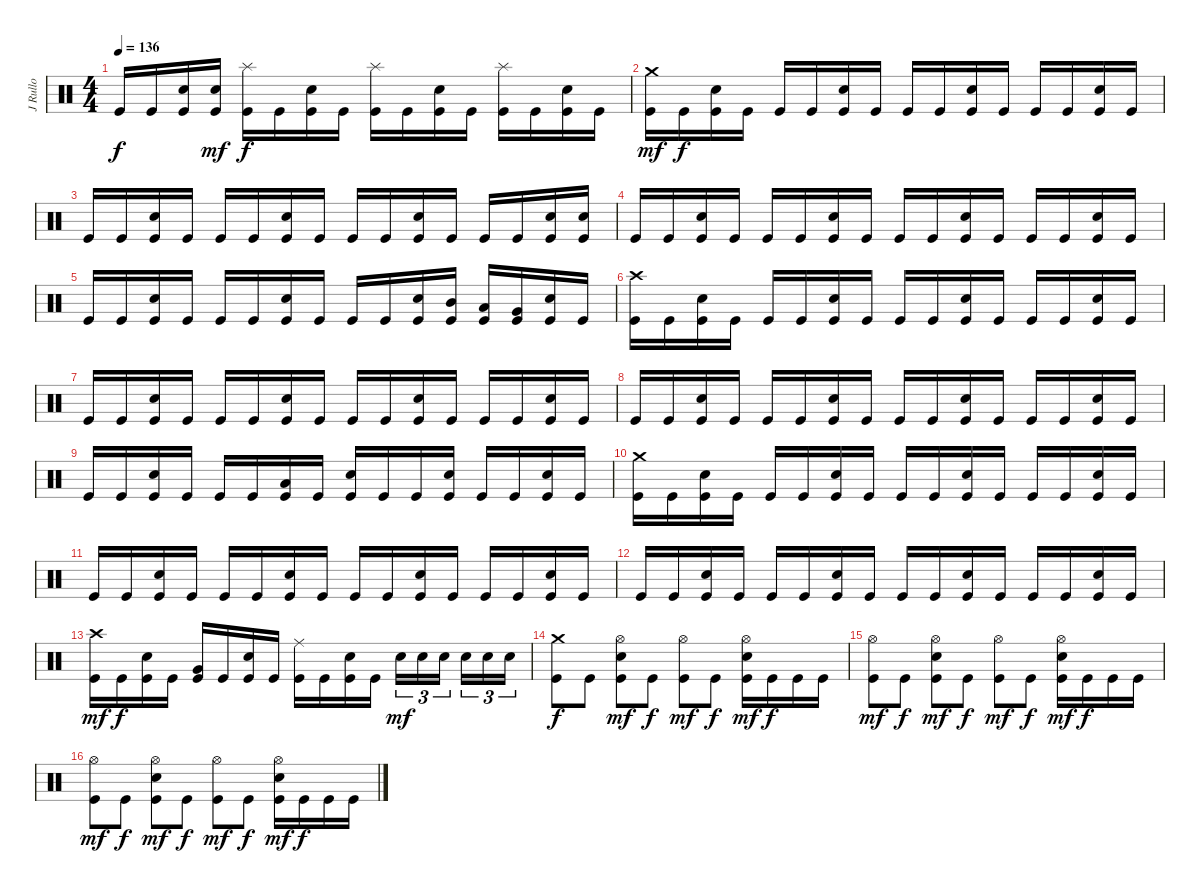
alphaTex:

\track ("J Rullo" "J Rullo") {instrument percussion}
\staff {score}
\articulation defaults
\ts (4 4)
\tempo 136
\clef neutral
\ks c "Kick (hit)".16{dy f} "Kick (hit)".16
("Electric Snare (hit)" "Kick (hit)").16 ("Electric Snare (hit)" "Kick (hit)").16{dy mf} ("Splash (hit)" "Kick (hit)").16{dy f} "Kick (hit)".16 ("Electric Snare (hit)" "Kick (hit)").16 "Kick (hit)".16 ("Splash (hit)" "Kick (hit)").16 "Kick (hit)".16 ("Electric Snare (hit)" "Kick (hit)").16 "Kick (hit)".16 ("Splash (hit)" "Kick (hit)").16 "Kick (hit)".16 ("Electric Snare (hit)" "Kick (hit)").16 "Kick (hit)".16 |
("Crash medium (hit)" "Kick (hit)").16{dy mf} "Kick (hit)".16{dy f} ("Electric Snare (hit)" "Kick (hit)").16 "Kick (hit)".16 "Kick (hit)".16 "Kick (hit)".16 ("Electric Snare (hit)" "Kick (hit)").16 "Kick (hit)".16 "Kick (hit)".16 "Kick (hit)".16 ("Electric Snare (hit)" "Kick (hit)").16 "Kick (hit)".16 "Kick (hit)".16 "Kick (hit)".16 ("Electric Snare (hit)" "Kick (hit)").16 "Kick (hit)".16 |
"Kick (hit)".16 "Kick (hit)".16 ("Electric Snare (hit)" "Kick (hit)").16 "Kick (hit)".16 "Kick (hit)".16 "Kick (hit)".16 ("Electric Snare (hit)" "Kick (hit)").16 "Kick (hit)".16 "Kick (hit)".16 "Kick (hit)".16 ("Electric Snare (hit)" "Kick (hit)").16 "Kick (hit)".16 "Kick (hit)".16 "Kick (hit)".16 ("Electric Snare (hit)" "Kick (hit)").16 ("Electric Snare (hit)" "Kick (hit)").16 |
"Kick (hit)".16 "Kick (hit)".16 ("Electric Snare (hit)" "Kick (hit)").16 "Kick (hit)".16 "Kick (hit)".16 "Kick (hit)".16 ("Electric Snare (hit)" "Kick (hit)").16 "Kick (hit)".16 "Kick (hit)".16 "Kick (hit)".16 ("Electric Snare (hit)" "Kick (hit)").16 "Kick (hit)".16 "Kick (hit)".16 "Kick (hit)".16 ("Electric Snare (hit)" "Kick (hit)").16 "Kick (hit)".16 |
"Kick (hit)".16 "Kick (hit)".16 ("Electric Snare (hit)" "Kick (hit)").16 "Kick (hit)".16 "Kick (hit)".16 "Kick (hit)".16 ("Electric Snare (hit)" "Kick (hit)").16 "Kick (hit)".16 "Kick (hit)".16 "Kick (hit)".16 ("Electric Snare (hit)" "Kick (hit)").16 ("Mid Tom (hit)" "Kick (hit)").16 ("Low Tom (hit)" "Kick (hit)").16 ("Very Low Tom (hit)" "Kick (hit)").16 ("Electric Snare (hit)" "Kick (hit)").16 "Kick (hit)".16 |
("Crash high (hit)" "Kick (hit)").16 "Kick (hit)".16 ("Electric Snare (hit)" "Kick (hit)").16 "Kick (hit)".16 "Kick (hit)".16 "Kick (hit)".16 ("Electric Snare (hit)" "Kick (hit)").16 "Kick (hit)".16 "Kick (hit)".16 "Kick (hit)".16 ("Electric Snare (hit)" "Kick (hit)").16 "Kick (hit)".16 "Kick (hit)".16 "Kick (hit)".16 ("Electric Snare (hit)" "Kick (hit)").16 "Kick (hit)".16 |
"Kick (hit)".16 "Kick (hit)".16 ("Electric Snare (hit)" "Kick (hit)").16 "Kick (hit)".16 "Kick (hit)".16 "Kick (hit)".16 ("Electric Snare (hit)" "Kick (hit)").16 "Kick (hit)".16 "Kick (hit)".16 "Kick (hit)".16 ("Electric Snare (hit)" "Kick (hit)").16 "Kick (hit)".16 "Kick (hit)".16 "Kick (hit)".16 ("Electric Snare (hit)" "Kick (hit)").16 "Kick (hit)".16 |
"Kick (hit)".16 "Kick (hit)".16 ("Electric Snare (hit)" "Kick (hit)").16 "Kick (hit)".16 "Kick (hit)".16 "Kick (hit)".16 ("Electric Snare (hit)" "Kick (hit)").16 "Kick (hit)".16 "Kick (hit)".16 "Kick (hit)".16 ("Electric Snare (hit)" "Kick (hit)").16 "Kick (hit)".16 "Kick (hit)".16 "Kick (hit)".16 ("Electric Snare (hit)" "Kick (hit)").16 "Kick (hit)".16 |
"Kick (hit)".16 "Kick (hit)".16 ("Electric Snare (hit)" "Kick (hit)").16 "Kick (hit)".16 "Kick (hit)".16 "Kick (hit)".16 ("Low Tom (hit)" "Kick (hit)").16 "Kick (hit)".16 ("Snare (hit) 2" "Kick (hit)").16 "Kick (hit)".16 "Kick (hit)".16 ("Snare (hit) 2" "Kick (hit)").16 "Kick (hit)".16 "Kick (hit)".16 ("Snare (hit) 2" "Kick (hit)").16 "Kick (hit)".16 |
("Crash medium (hit)" "Kick (hit)").16 "Kick (hit)".16 ("Electric Snare (hit)" "Kick (hit)").16 "Kick (hit)".16 "Kick (hit)".16 "Kick (hit)".16 ("Electric Snare (hit)" "Kick (hit)").16 "Kick (hit)".16 "Kick (hit)".16 "Kick (hit)".16 ("Electric Snare (hit)" "Kick (hit)").16 "Kick (hit)".16 "Kick (hit)".16 "Kick (hit)".16 ("Electric Snare (hit)" "Kick (hit)").16 "Kick (hit)".16 |
"Kick (hit)".16 "Kick (hit)".16 ("Electric Snare (hit)" "Kick (hit)").16 "Kick (hit)".16 "Kick (hit)".16 "Kick (hit)".16 ("Electric Snare (hit)" "Kick (hit)").16 "Kick (hit)".16 "Kick (hit)".16 "Kick (hit)".16 ("Electric Snare (hit)" "Kick (hit)").16 "Kick (hit)".16 "Kick (hit)".16 "Kick (hit)".16 ("Electric Snare (hit)" "Kick (hit)").16 "Kick (hit)".16 |
"Kick (hit)".16 "Kick (hit)".16 ("Electric Snare (hit)" "Kick (hit)").16 "Kick (hit)".16 "Kick (hit)".16 "Kick (hit)".16 ("Electric Snare (hit)" "Kick (hit)").16 "Kick (hit)".16 "Kick (hit)".16 "Kick (hit)".16 ("Electric Snare (hit)" "Kick (hit)").16 "Kick (hit)".16 "Kick (hit)".16 "Kick (hit)".16 ("Electric Snare (hit)" "Kick (hit)").16 "Kick (hit)".16 |
("Crash high (hit)" "Kick (hit)").16{dy mf} "Kick (hit)".16{dy f} ("Electric Snare (hit)" "Kick (hit)").16 "Kick (hit)".16 ("Very Low Tom (hit)" "Kick (hit)").16 "Kick (hit)".16 ("Electric Snare (hit)" "Kick (hit)").16 "Kick (hit)".16 ("Ride (middle)" "Kick (hit)").16 "Kick (hit)".16 ("Electric Snare (hit)" "Kick (hit)").16 "Kick (hit)".16 "Electric Snare (hit)".16{tu (3 2) dy mf} "Electric Snare (hit)".16{tu (3 2)} "Electric Snare (hit)".16{tu (3 2)} "Electric Snare (hit)".16{tu (3 2)} "Electric Snare (hit)".16{tu (3 2)} "Electric Snare (hit)".16{tu (3 2)} |
("Crash medium (hit)" "Kick (hit)").8{dy f} "Kick (hit)".8 ("Hi-Hat (open)" "Electric Snare (hit)" "Kick (hit)").8{dy mf} "Kick (hit)".8{dy f} ("Hi-Hat (open)" "Kick (hit)").8{dy mf} "Kick (hit)".8{dy f} ("Hi-Hat (open)" "Electric Snare (hit)" "Kick (hit)").16{dy mf} "Kick (hit)".16{dy f} "Kick (hit)".16 "Kick (hit)".16 |
("Hi-Hat (open)" "Kick (hit)").8{dy mf} "Kick (hit)".8{dy f} ("Hi-Hat (open)" "Electric Snare (hit)" "Kick (hit)").8{dy mf} "Kick (hit)".8{dy f} ("Hi-Hat (open)" "Kick (hit)").8{dy mf} "Kick (hit)".8{dy f} ("Hi-Hat (open)" "Electric Snare (hit)" "Kick (hit)").16{dy mf} "Kick (hit)".16{dy f} "Kick (hit)".16 "Kick (hit)".16 |
("Hi-Hat (open)" "Kick (hit)").8{dy mf} "Kick (hit)".8{dy f} ("Hi-Hat (open)" "Electric Snare (hit)" "Kick (hit)").8{dy mf} "Kick (hit)".8{dy f} ("Hi-Hat (open)" "Kick (hit)").8{dy mf} "Kick (hit)".8{dy f} ("Hi-Hat (open)" "Electric Snare (hit)" "Kick (hit)").16{dy mf} "Kick (hit)".16{dy f} "Kick (hit)".16 "Kick (hit)".16
